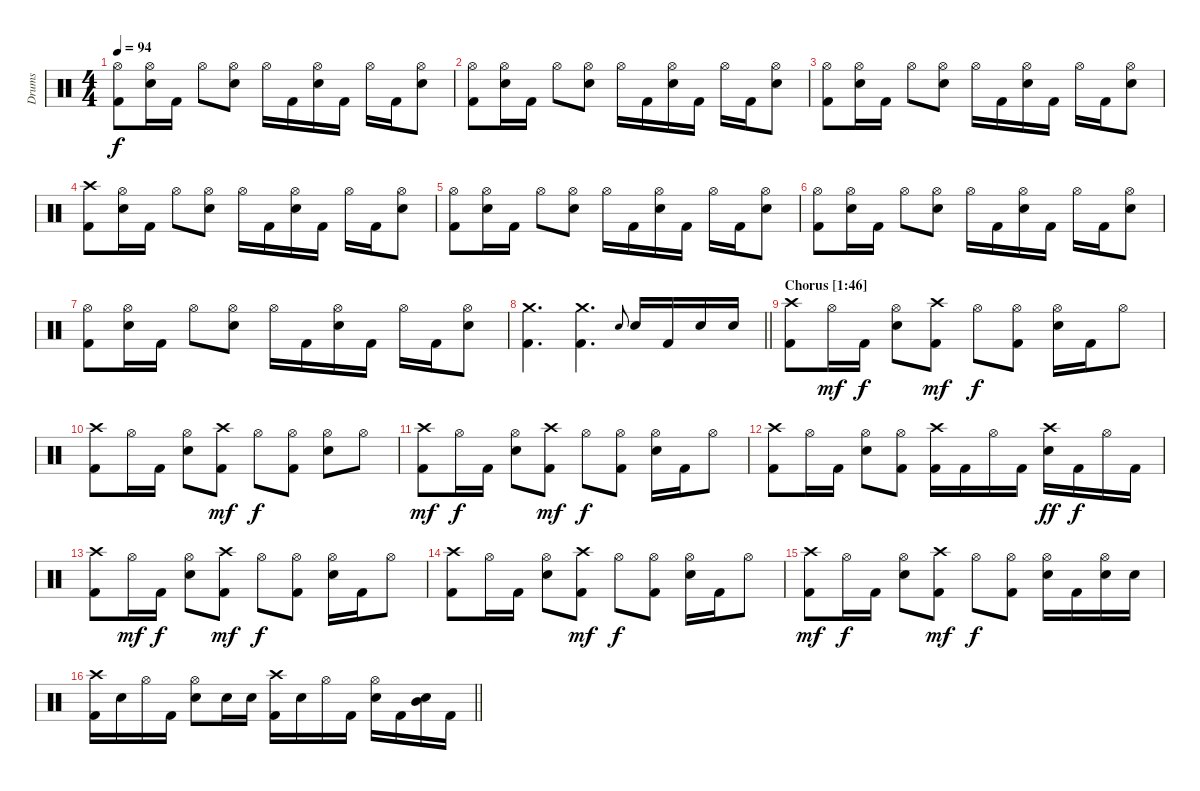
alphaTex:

\track ("Drums" "Drums") {instrument percussion}
\staff {score}
\articulation defaults
\ts (4 4)
\tempo 94
\clef neutral
\ks c
("Hi-Hat (open)" "Kick (hit) 2").8{dy f} ("Hi-Hat (open)" "Electric Snare (hit)").16 "Kick (hit) 2".16 "Hi-Hat (open)".8 ("Hi-Hat (open)" "Electric Snare (hit)").8 "Hi-Hat (open)".16 "Kick (hit) 2".16 ("Hi-Hat (open)" "Electric Snare (hit)").16 "Kick (hit) 2".16 "Hi-Hat (open)".16 "Kick (hit) 2".16 ("Hi-Hat (open)" "Electric Snare (hit)").8 |
("Hi-Hat (open)" "Kick (hit) 2").8 ("Hi-Hat (open)" "Electric Snare (hit)").16 "Kick (hit) 2".16 "Hi-Hat (open)".8 ("Hi-Hat (open)" "Electric Snare (hit)").8 "Hi-Hat (open)".16 "Kick (hit) 2".16 ("Hi-Hat (open)" "Electric Snare (hit)").16 "Kick (hit) 2".16 "Hi-Hat (open)".16 "Kick (hit) 2".16 ("Hi-Hat (open)" "Electric Snare (hit)").8 |
("Hi-Hat (open)" "Kick (hit) 2").8 ("Hi-Hat (open)" "Electric Snare (hit)").16 "Kick (hit) 2".16 "Hi-Hat (open)".8 ("Hi-Hat (open)" "Electric Snare (hit)").8 "Hi-Hat (open)".16 "Kick (hit) 2".16 ("Hi-Hat (open)" "Electric Snare (hit)").16 "Kick (hit) 2".16 "Hi-Hat (open)".16 "Kick (hit) 2".16 ("Hi-Hat (open)" "Electric Snare (hit)").8 |
("Crash high (hit)" "Kick (hit) 2").8 ("Hi-Hat (open)" "Electric Snare (hit)").16 "Kick (hit) 2".16 "Hi-Hat (open)".8 ("Hi-Hat (open)" "Electric Snare (hit)").8 "Hi-Hat (open)".16 "Kick (hit) 2".16 ("Hi-Hat (open)" "Electric Snare (hit)").16 "Kick (hit) 2".16 "Hi-Hat (open)".16 "Kick (hit) 2".16 ("Hi-Hat (open)" "Electric Snare (hit)").8 |
("Hi-Hat (open)" "Kick (hit) 2").8 ("Hi-Hat (open)" "Electric Snare (hit)").16 "Kick (hit) 2".16 "Hi-Hat (open)".8 ("Hi-Hat (open)" "Electric Snare (hit)").8 "Hi-Hat (open)".16 "Kick (hit) 2".16 ("Hi-Hat (open)" "Electric Snare (hit)").16 "Kick (hit) 2".16 "Hi-Hat (open)".16 "Kick (hit) 2".16 ("Hi-Hat (open)" "Electric Snare (hit)").8 |
("Hi-Hat (open)" "Kick (hit) 2").8 ("Hi-Hat (open)" "Electric Snare (hit)").16 "Kick (hit) 2".16 "Hi-Hat (open)".8 ("Hi-Hat (open)" "Electric Snare (hit)").8 "Hi-Hat (open)".16 "Kick (hit) 2".16 ("Hi-Hat (open)" "Electric Snare (hit)").16 "Kick (hit) 2".16 "Hi-Hat (open)".16 "Kick (hit) 2".16 ("Hi-Hat (open)" "Electric Snare (hit)").8 |
("Hi-Hat (open)" "Kick (hit) 2").8 ("Hi-Hat (open)" "Electric Snare (hit)").16 "Kick (hit) 2".16 "Hi-Hat (open)".8 ("Hi-Hat (open)" "Electric Snare (hit)").8 "Hi-Hat (open)".16 "Kick (hit) 2".16 ("Hi-Hat (open)" "Electric Snare (hit)").16 "Kick (hit) 2".16 "Hi-Hat (open)".16 "Kick (hit) 2".16 ("Hi-Hat (open)" "Electric Snare (hit)").8 |
\barLineRight lightlight
("Crash medium (hit)" "Kick (hit) 2").4{d} ("Crash medium (hit)" "Kick (hit) 2").4{d} "Snare (hit) 2".8{gr onbeat} "Snare (hit) 2".16 "Kick (hit) 2".16 "Snare (hit) 2".16 "Snare (hit) 2".16 |
\section ("" "Chorus [1:46]")
("Crash high (hit)" "Kick (hit) 2").8 "Hi-Hat (open)".16{dy mf} "Kick (hit) 2".16{dy f} ("Hi-Hat (open)" "Electric Snare (hit)").8 ("Crash high (hit)" "Kick (hit) 2").8{dy mf} "Hi-Hat (open)".8{dy f} ("Hi-Hat (open)" "Kick (hit) 2").8 ("Hi-Hat (open)" "Electric Snare (hit)").16 "Kick (hit) 2".16 "Hi-Hat (open)".8 |
("Crash high (hit)" "Kick (hit) 2").8 "Hi-Hat (open)".16 "Kick (hit) 2".16 ("Hi-Hat (open)" "Electric Snare (hit)").8 ("Crash high (hit)" "Kick (hit) 2").8{dy mf} "Hi-Hat (open)".8{dy f} ("Hi-Hat (open)" "Kick (hit) 2").8 ("Hi-Hat (open)" "Electric Snare (hit)").8 "Hi-Hat (open)".8 |
("Crash high (hit)" "Kick (hit) 2").8{dy mf} "Hi-Hat (open)".16{dy f} "Kick (hit) 2".16 ("Hi-Hat (open)" "Electric Snare (hit)").8 ("Crash high (hit)" "Kick (hit) 2").8{dy mf} "Hi-Hat (open)".8{dy f} ("Hi-Hat (open)" "Kick (hit) 2").8 ("Hi-Hat (open)" "Electric Snare (hit)").16 "Kick (hit) 2".16 "Hi-Hat (open)".8 |
("Crash high (hit)" "Kick (hit) 2").8 "Hi-Hat (open)".16 "Kick (hit) 2".16 ("Hi-Hat (open)" "Electric Snare (hit)").8 ("Hi-Hat (open)" "Kick (hit) 2").8 ("Crash high (hit)" "Kick (hit) 2").16 "Kick (hit) 2".16 "Hi-Hat (open)".16 "Kick (hit) 2".16 ("Crash high (hit)" "Electric Snare (hit)").16{dy ff} "Kick (hit) 2".16{dy f} "Hi-Hat (open)".16 "Kick (hit) 2".16 |
("Crash high (hit)" "Kick (hit) 2").8 "Hi-Hat (open)".16{dy mf} "Kick (hit) 2".16{dy f} ("Hi-Hat (open)" "Electric Snare (hit)").8 ("Crash high (hit)" "Kick (hit) 2").8{dy mf} "Hi-Hat (open)".8{dy f} ("Hi-Hat (open)" "Kick (hit) 2").8 ("Hi-Hat (open)" "Electric Snare (hit)").16 "Kick (hit) 2".16 "Hi-Hat (open)".8 |
("Crash high (hit)" "Kick (hit) 2").8 "Hi-Hat (open)".16 "Kick (hit) 2".16 ("Hi-Hat (open)" "Electric Snare (hit)").8 ("Crash high (hit)" "Kick (hit) 2").8{dy mf} "Hi-Hat (open)".8{dy f} ("Hi-Hat (open)" "Kick (hit) 2").8 ("Hi-Hat (open)" "Electric Snare (hit)").16 "Kick (hit) 2".16 "Hi-Hat (open)".8 |
("Crash high (hit)" "Kick (hit) 2").8{dy mf} "Hi-Hat (open)".16{dy f} "Kick (hit) 2".16 ("Hi-Hat (open)" "Electric Snare (hit)").8 ("Crash high (hit)" "Kick (hit) 2").8{dy mf} "Hi-Hat (open)".8{dy f} ("Hi-Hat (open)" "Kick (hit) 2").8 ("Hi-Hat (open)" "Electric Snare (hit)").16 "Kick (hit) 2".16 ("Hi-Hat (open)" "Electric Snare (hit)").16 "Electric Snare (hit)".16 |
\barLineRight lightlight
("Crash high (hit)" "Kick (hit) 2").16 "Electric Snare (hit)".16 "Hi-Hat (open)".16 "Kick (hit) 2".16 ("Hi-Hat (open)" "Electric Snare (hit)").8 "Electric Snare (hit)".16 "Electric Snare (hit)".16 ("Crash high (hit)" "Kick (hit) 2").16 "Electric Snare (hit)".16 "Hi-Hat (open)".16 "Kick (hit) 2".16 ("Hi-Hat (open)" "Electric Snare (hit)").16 "Kick (hit) 2".16 ("Mid Tom (hit)" "Electric Snare (hit)").16 "Kick (hit) 2".16
